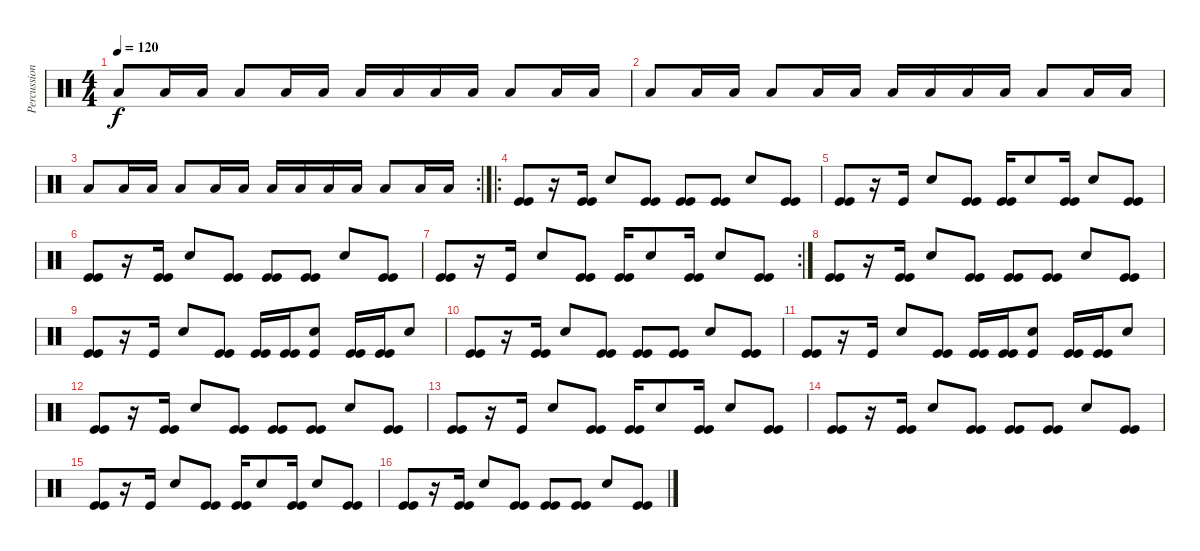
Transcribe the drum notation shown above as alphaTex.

\track ("Percussion" "Percussion") {instrument percussion}
\staff {score}
\articulation defaults
\ts (4 4)
\tempo 120
\clef neutral
\ks c "Low Tom (hit)".8{dy f} "Low Tom (hit)".16 "Low Tom (hit)".16 "Low Tom (hit)".8 "Low Tom (hit)".16 "Low Tom (hit)".16 "Low Tom (hit)".16 "Low Tom (hit)".16 "Low Tom (hit)".16 "Low Tom (hit)".16 "Low Tom (hit)".8 "Low Tom (hit)".16 "Low Tom (hit)".16
|
"Low Tom (hit)".8 "Low Tom (hit)".16 "Low Tom (hit)".16 "Low Tom (hit)".8 "Low Tom (hit)".16 "Low Tom (hit)".16 "Low Tom (hit)".16 "Low Tom (hit)".16 "Low Tom (hit)".16 "Low Tom (hit)".16 "Low Tom (hit)".8 "Low Tom (hit)".16 "Low Tom (hit)".16 |
\rc 2 "Low Tom (hit)".8 "Low Tom (hit)".16 "Low Tom (hit)".16 "Low Tom (hit)".8 "Low Tom (hit)".16 "Low Tom (hit)".16 "Low Tom (hit)".16 "Low Tom (hit)".16 "Low Tom (hit)".16 "Low Tom (hit)".16 "Low Tom (hit)".8 "Low Tom (hit)".16 "Low Tom (hit)".16
|
\ro
("Kick (hit)" "Kick (hit)").8 r.16 ("Kick (hit)" "Kick (hit)").16 "Electric Snare (hit)".8 ("Kick (hit)" "Kick (hit)").8 ("Kick (hit)" "Kick (hit)").8 ("Kick (hit)" "Kick (hit)").8 "Electric Snare (hit)".8 ("Kick (hit)" "Kick (hit)").8 |
("Kick (hit)" "Kick (hit)").8 r.16 "Kick (hit)".16 "Electric Snare (hit)".8 ("Kick (hit)" "Kick (hit)").8 ("Kick (hit)" "Kick (hit)").16 "Electric Snare (hit)".8 ("Kick (hit)" "Kick (hit)").16 "Electric Snare (hit)".8 ("Kick (hit)" "Kick (hit)").8 |
("Kick (hit)" "Kick (hit)").8 r.16 ("Kick (hit)" "Kick (hit)").16 "Electric Snare (hit)".8 ("Kick (hit)" "Kick (hit)").8 ("Kick (hit)" "Kick (hit)").8 ("Kick (hit)" "Kick (hit)").8 "Electric Snare (hit)".8 ("Kick (hit)" "Kick (hit)").8 |
\rc 2
("Kick (hit)" "Kick (hit)").8 r.16 "Kick (hit)".16 "Electric Snare (hit)".8 ("Kick (hit)" "Kick (hit)").8 ("Kick (hit)" "Kick (hit)").16 "Electric Snare (hit)".8 ("Kick (hit)" "Kick (hit)").16 "Electric Snare (hit)".8 ("Kick (hit)" "Kick (hit)").8 |
("Kick (hit)" "Kick (hit)").8 r.16 ("Kick (hit)" "Kick (hit)").16 "Electric Snare (hit)".8 ("Kick (hit)" "Kick (hit)").8 ("Kick (hit)" "Kick (hit)").8 ("Kick (hit)" "Kick (hit)").8 "Electric Snare (hit)".8 ("Kick (hit)" "Kick (hit)").8 |
("Kick (hit)" "Kick (hit)").8 r.16 "Kick (hit)".16 "Electric Snare (hit)".8 ("Kick (hit)" "Kick (hit)").8 ("Kick (hit)" "Kick (hit)").16 ("Kick (hit)" "Kick (hit)").16 ("Electric Snare (hit)" "Kick (hit)").8 ("Kick (hit)" "Kick (hit)").16 ("Kick (hit)" "Kick (hit)").16 "Electric Snare (hit)".8 |
("Kick (hit)" "Kick (hit)").8 r.16 ("Kick (hit)" "Kick (hit)").16 "Electric Snare (hit)".8 ("Kick (hit)" "Kick (hit)").8 ("Kick (hit)" "Kick (hit)").8 ("Kick (hit)" "Kick (hit)").8 "Electric Snare (hit)".8 ("Kick (hit)" "Kick (hit)").8 |
("Kick (hit)" "Kick (hit)").8 r.16 "Kick (hit)".16 "Electric Snare (hit)".8 ("Kick (hit)" "Kick (hit)").8 ("Kick (hit)" "Kick (hit)").16 ("Kick (hit)" "Kick (hit)").16 ("Electric Snare (hit)" "Kick (hit)").8 ("Kick (hit)" "Kick (hit)").16 ("Kick (hit)" "Kick (hit)").16 "Electric Snare (hit)".8 |
("Kick (hit)" "Kick (hit)").8 r.16 ("Kick (hit)" "Kick (hit)").16 "Electric Snare (hit)".8 ("Kick (hit)" "Kick (hit)").8 ("Kick (hit)" "Kick (hit)").8 ("Kick (hit)" "Kick (hit)").8 "Electric Snare (hit)".8 ("Kick (hit)" "Kick (hit)").8 |
("Kick (hit)" "Kick (hit)").8 r.16 "Kick (hit)".16 "Electric Snare (hit)".8 ("Kick (hit)" "Kick (hit)").8 ("Kick (hit)" "Kick (hit)").16 "Electric Snare (hit)".8 ("Kick (hit)" "Kick (hit)").16 "Electric Snare (hit)".8 ("Kick (hit)" "Kick (hit)").8 |
("Kick (hit)" "Kick (hit)").8 r.16 ("Kick (hit)" "Kick (hit)").16 "Electric Snare (hit)".8 ("Kick (hit)" "Kick (hit)").8 ("Kick (hit)" "Kick (hit)").8 ("Kick (hit)" "Kick (hit)").8 "Electric Snare (hit)".8 ("Kick (hit)" "Kick (hit)").8 |
("Kick (hit)" "Kick (hit)").8 r.16 "Kick (hit)".16 "Electric Snare (hit)".8 ("Kick (hit)" "Kick (hit)").8 ("Kick (hit)" "Kick (hit)").16 "Electric Snare (hit)".8 ("Kick (hit)" "Kick (hit)").16 "Electric Snare (hit)".8 ("Kick (hit)" "Kick (hit)").8 |
("Kick (hit)" "Kick (hit)").8 r.16 ("Kick (hit)" "Kick (hit)").16 "Electric Snare (hit)".8 ("Kick (hit)" "Kick (hit)").8 ("Kick (hit)" "Kick (hit)").8 ("Kick (hit)" "Kick (hit)").8 "Electric Snare (hit)".8 ("Kick (hit)" "Kick (hit)").8
